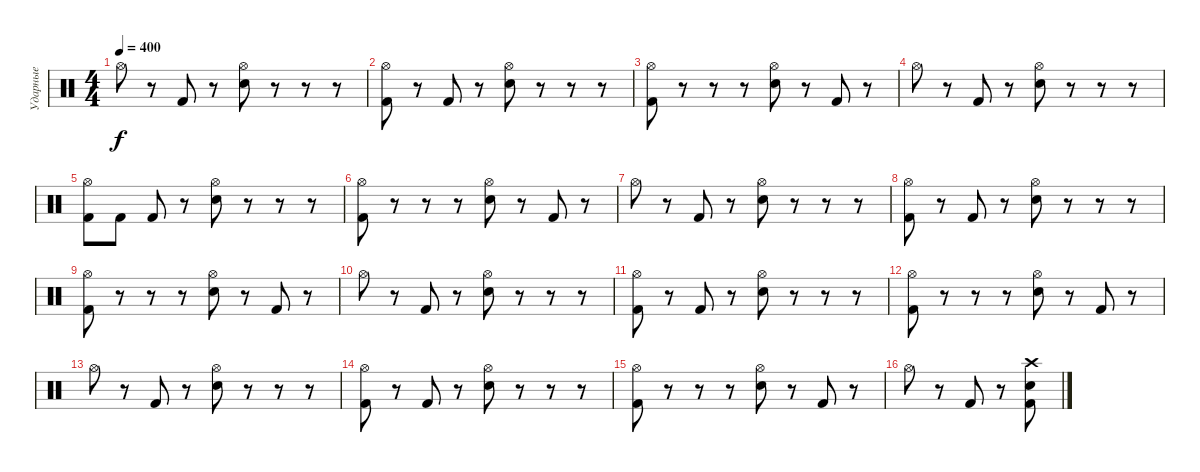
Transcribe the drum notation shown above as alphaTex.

\track ("Ударные" "Ударные") {instrument percussion}
\staff {score}
\articulation defaults
\ts (4 4)
\tempo 400
\clef neutral
\ks c "Hi-Hat (open)".8{dy f}
r.8 "Kick (hit) 2".8 r.8 ("Electric Snare (hit)" "Hi-Hat (open)").8 r.8 r.8 r.8 |
("Kick (hit) 2" "Hi-Hat (open)").8 r.8 "Kick (hit) 2".8 r.8 ("Electric Snare (hit)" "Hi-Hat (open)").8 r.8 r.8 r.8 |
("Kick (hit) 2" "Hi-Hat (open)").8 r.8 r.8 r.8 ("Electric Snare (hit)" "Hi-Hat (open)").8 r.8 "Kick (hit) 2".8 r.8 |
"Hi-Hat (open)".8 r.8 "Kick (hit) 2".8 r.8 ("Electric Snare (hit)" "Hi-Hat (open)").8 r.8 r.8 r.8 |
("Kick (hit) 2" "Hi-Hat (open)").8 "Kick (hit) 2".8 "Kick (hit) 2".8 r.8 ("Electric Snare (hit)" "Hi-Hat (open)").8 r.8 r.8 r.8 |
("Kick (hit) 2" "Hi-Hat (open)").8 r.8 r.8 r.8 ("Electric Snare (hit)" "Hi-Hat (open)").8 r.8 "Kick (hit) 2".8 r.8 |
"Hi-Hat (open)".8 r.8 "Kick (hit) 2".8 r.8 ("Electric Snare (hit)" "Hi-Hat (open)").8 r.8 r.8 r.8 |
("Kick (hit) 2" "Hi-Hat (open)").8 r.8 "Kick (hit) 2".8 r.8 ("Electric Snare (hit)" "Hi-Hat (open)").8 r.8 r.8 r.8 |
("Kick (hit) 2" "Hi-Hat (open)").8 r.8 r.8 r.8 ("Electric Snare (hit)" "Hi-Hat (open)").8 r.8 "Kick (hit) 2".8 r.8 |
"Hi-Hat (open)".8 r.8 "Kick (hit) 2".8 r.8 ("Electric Snare (hit)" "Hi-Hat (open)").8 r.8 r.8 r.8 |
("Kick (hit) 2" "Hi-Hat (open)").8 r.8 "Kick (hit) 2".8 r.8 ("Electric Snare (hit)" "Hi-Hat (open)").8 r.8 r.8 r.8 |
("Kick (hit) 2" "Hi-Hat (open)").8 r.8 r.8 r.8 ("Electric Snare (hit)" "Hi-Hat (open)").8 r.8 "Kick (hit) 2".8 r.8 |
"Hi-Hat (open)".8 r.8 "Kick (hit) 2".8 r.8 ("Electric Snare (hit)" "Hi-Hat (open)").8 r.8 r.8 r.8 |
("Kick (hit) 2" "Hi-Hat (open)").8 r.8 "Kick (hit) 2".8 r.8 ("Electric Snare (hit)" "Hi-Hat (open)").8 r.8 r.8 r.8 |
("Kick (hit) 2" "Hi-Hat (open)").8 r.8 r.8 r.8 ("Electric Snare (hit)" "Hi-Hat (open)").8 r.8 "Kick (hit) 2".8 r.8 |
"Hi-Hat (open)".8 r.8 "Kick (hit) 2".8 r.8 ("Kick (hit) 2" "Electric Snare (hit)" "Crash high (hit)").8
